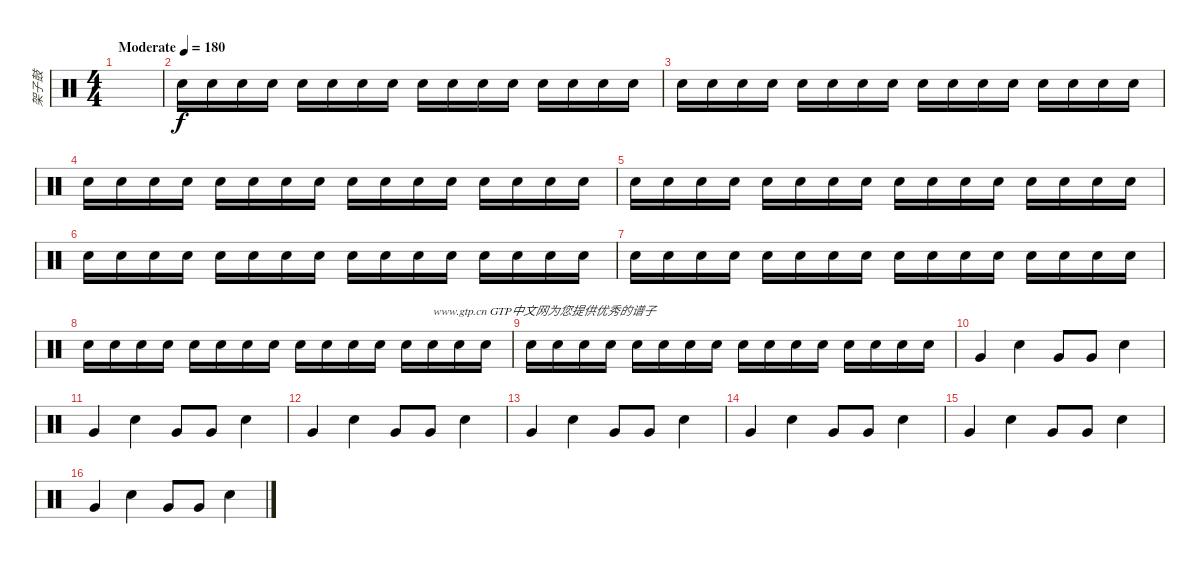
\track ("架子鼓" "架子鼓") {instrument percussion}
\staff {score}
\articulation defaults
\ts (4 4)
\tempo (180 "Moderate")
\clef neutral
\ks c
|
"Electric Snare (hit)".16 "Electric Snare (hit)".16 "Electric Snare (hit)".16 "Electric Snare (hit)".16 "Electric Snare (hit)".16 "Electric Snare (hit)".16 "Electric Snare (hit)".16 "Electric Snare (hit)".16 "Electric Snare (hit)".16 "Electric Snare (hit)".16 "Electric Snare (hit)".16 "Electric Snare (hit)".16 "Electric Snare (hit)".16 "Electric Snare (hit)".16 "Electric Snare (hit)".16 "Electric Snare (hit)".16 |
"Electric Snare (hit)".16 "Electric Snare (hit)".16 "Electric Snare (hit)".16 "Electric Snare (hit)".16 "Electric Snare (hit)".16 "Electric Snare (hit)".16 "Electric Snare (hit)".16 "Electric Snare (hit)".16 "Electric Snare (hit)".16 "Electric Snare (hit)".16 "Electric Snare (hit)".16 "Electric Snare (hit)".16 "Electric Snare (hit)".16 "Electric Snare (hit)".16 "Electric Snare (hit)".16 "Electric Snare (hit)".16 |
"Electric Snare (hit)".16 "Electric Snare (hit)".16 "Electric Snare (hit)".16 "Electric Snare (hit)".16 "Electric Snare (hit)".16 "Electric Snare (hit)".16 "Electric Snare (hit)".16 "Electric Snare (hit)".16 "Electric Snare (hit)".16 "Electric Snare (hit)".16 "Electric Snare (hit)".16 "Electric Snare (hit)".16 "Electric Snare (hit)".16 "Electric Snare (hit)".16 "Electric Snare (hit)".16 "Electric Snare (hit)".16 |
"Electric Snare (hit)".16 "Electric Snare (hit)".16 "Electric Snare (hit)".16 "Electric Snare (hit)".16 "Electric Snare (hit)".16 "Electric Snare (hit)".16 "Electric Snare (hit)".16 "Electric Snare (hit)".16 "Electric Snare (hit)".16 "Electric Snare (hit)".16 "Electric Snare (hit)".16 "Electric Snare (hit)".16 "Electric Snare (hit)".16 "Electric Snare (hit)".16 "Electric Snare (hit)".16 "Electric Snare (hit)".16 |
"Electric Snare (hit)".16 "Electric Snare (hit)".16 "Electric Snare (hit)".16 "Electric Snare (hit)".16 "Electric Snare (hit)".16 "Electric Snare (hit)".16 "Electric Snare (hit)".16 "Electric Snare (hit)".16 "Electric Snare (hit)".16 "Electric Snare (hit)".16 "Electric Snare (hit)".16 "Electric Snare (hit)".16 "Electric Snare (hit)".16 "Electric Snare (hit)".16 "Electric Snare (hit)".16 "Electric Snare (hit)".16 |
"Electric Snare (hit)".16 "Electric Snare (hit)".16 "Electric Snare (hit)".16 "Electric Snare (hit)".16 "Electric Snare (hit)".16 "Electric Snare (hit)".16 "Electric Snare (hit)".16 "Electric Snare (hit)".16 "Electric Snare (hit)".16 "Electric Snare (hit)".16 "Electric Snare (hit)".16 "Electric Snare (hit)".16 "Electric Snare (hit)".16 "Electric Snare (hit)".16 "Electric Snare (hit)".16 "Electric Snare (hit)".16 |
"Electric Snare (hit)".16 "Electric Snare (hit)".16 "Electric Snare (hit)".16 "Electric Snare (hit)".16 "Electric Snare (hit)".16 "Electric Snare (hit)".16 "Electric Snare (hit)".16 "Electric Snare (hit)".16 "Electric Snare (hit)".16 "Electric Snare (hit)".16 "Electric Snare (hit)".16 "Electric Snare (hit)".16 "Electric Snare (hit)".16 "Electric Snare (hit)".16{txt "www.gtp.cn GTP中文网为您提供优秀的谱子"} "Electric Snare (hit)".16 "Electric Snare (hit)".16 |
"Electric Snare (hit)".16 "Electric Snare (hit)".16 "Electric Snare (hit)".16 "Electric Snare (hit)".16 "Electric Snare (hit)".16 "Electric Snare (hit)".16 "Electric Snare (hit)".16 "Electric Snare (hit)".16 "Electric Snare (hit)".16 "Electric Snare (hit)".16 "Electric Snare (hit)".16 "Electric Snare (hit)".16 "Electric Snare (hit)".16 "Electric Snare (hit)".16 "Electric Snare (hit)".16 "Electric Snare (hit)".16 |
"Very Low Tom (hit)".4 "Electric Snare (hit)".4 "Very Low Tom (hit)".8 "Very Low Tom (hit)".8 "Electric Snare (hit)".4 |
"Very Low Tom (hit)".4 "Electric Snare (hit)".4 "Very Low Tom (hit)".8 "Very Low Tom (hit)".8 "Electric Snare (hit)".4 |
"Very Low Tom (hit)".4 "Electric Snare (hit)".4 "Very Low Tom (hit)".8 "Very Low Tom (hit)".8 "Electric Snare (hit)".4 |
"Very Low Tom (hit)".4 "Electric Snare (hit)".4 "Very Low Tom (hit)".8 "Very Low Tom (hit)".8 "Electric Snare (hit)".4 |
"Very Low Tom (hit)".4 "Electric Snare (hit)".4 "Very Low Tom (hit)".8 "Very Low Tom (hit)".8 "Electric Snare (hit)".4 |
"Very Low Tom (hit)".4 "Electric Snare (hit)".4 "Very Low Tom (hit)".8 "Very Low Tom (hit)".8 "Electric Snare (hit)".4 |
"Very Low Tom (hit)".4 "Electric Snare (hit)".4 "Very Low Tom (hit)".8 "Very Low Tom (hit)".8 "Electric Snare (hit)".4
